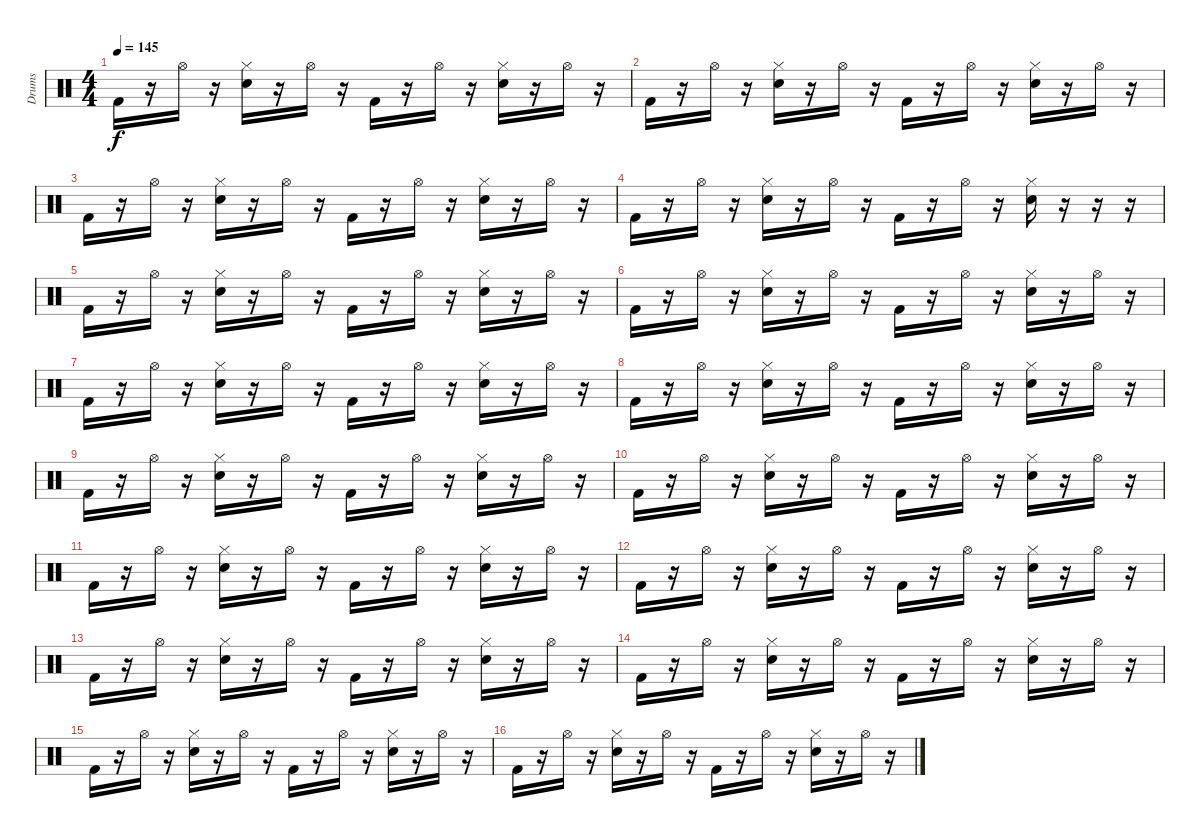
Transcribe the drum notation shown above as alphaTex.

\track ("Drums" "Drums") {instrument percussion}
\staff {score}
\articulation defaults
\ts (4 4)
\tempo 145
\clef neutral
\ks c "Kick (hit) 2".16{dy f}
r.16 "Hi-Hat (open)".16 r.16 ("Snare (hit) 2" "Hi-Hat (closed)").16 r.16 "Hi-Hat (open)".16 r.16 "Kick (hit) 2".16 r.16 "Hi-Hat (open)".16 r.16 ("Snare (hit) 2" "Hi-Hat (closed)").16 r.16 "Hi-Hat (open)".16 r.16 |
"Kick (hit) 2".16 r.16 "Hi-Hat (open)".16 r.16 ("Snare (hit) 2" "Hi-Hat (closed)").16 r.16 "Hi-Hat (open)".16 r.16 "Kick (hit) 2".16 r.16 "Hi-Hat (open)".16 r.16 ("Snare (hit) 2" "Hi-Hat (closed)").16 r.16 "Hi-Hat (open)".16 r.16 |
"Kick (hit) 2".16 r.16 "Hi-Hat (open)".16 r.16 ("Snare (hit) 2" "Hi-Hat (closed)").16 r.16 "Hi-Hat (open)".16 r.16 "Kick (hit) 2".16 r.16 "Hi-Hat (open)".16 r.16 ("Snare (hit) 2" "Hi-Hat (closed)").16 r.16 "Hi-Hat (open)".16 r.16 |
"Kick (hit) 2".16 r.16 "Hi-Hat (open)".16 r.16 ("Snare (hit) 2" "Hi-Hat (closed)").16 r.16 "Hi-Hat (open)".16 r.16 "Kick (hit) 2".16 r.16 "Hi-Hat (open)".16 r.16 ("Snare (hit) 2" "Hi-Hat (closed)").16 r.16 r.16 r.16 |
"Kick (hit) 2".16 r.16 "Hi-Hat (open)".16 r.16 ("Snare (hit) 2" "Hi-Hat (closed)").16 r.16 "Hi-Hat (open)".16 r.16 "Kick (hit) 2".16 r.16 "Hi-Hat (open)".16 r.16 ("Snare (hit) 2" "Hi-Hat (closed)").16 r.16 "Hi-Hat (open)".16 r.16 |
"Kick (hit) 2".16 r.16 "Hi-Hat (open)".16 r.16 ("Snare (hit) 2" "Hi-Hat (closed)").16 r.16 "Hi-Hat (open)".16 r.16 "Kick (hit) 2".16 r.16 "Hi-Hat (open)".16 r.16 ("Snare (hit) 2" "Hi-Hat (closed)").16 r.16 "Hi-Hat (open)".16 r.16 |
"Kick (hit) 2".16 r.16 "Hi-Hat (open)".16 r.16 ("Snare (hit) 2" "Hi-Hat (closed)").16 r.16 "Hi-Hat (open)".16 r.16 "Kick (hit) 2".16 r.16 "Hi-Hat (open)".16 r.16 ("Snare (hit) 2" "Hi-Hat (closed)").16 r.16 "Hi-Hat (open)".16 r.16 |
"Kick (hit) 2".16 r.16 "Hi-Hat (open)".16 r.16 ("Snare (hit) 2" "Hi-Hat (closed)").16 r.16 "Hi-Hat (open)".16 r.16 "Kick (hit) 2".16 r.16 "Hi-Hat (open)".16 r.16 ("Snare (hit) 2" "Hi-Hat (closed)").16 r.16 "Hi-Hat (open)".16 r.16 |
"Kick (hit) 2".16 r.16 "Hi-Hat (open)".16 r.16 ("Snare (hit) 2" "Hi-Hat (closed)").16 r.16 "Hi-Hat (open)".16 r.16 "Kick (hit) 2".16 r.16 "Hi-Hat (open)".16 r.16 ("Snare (hit) 2" "Hi-Hat (closed)").16 r.16 "Hi-Hat (open)".16 r.16 |
"Kick (hit) 2".16 r.16 "Hi-Hat (open)".16 r.16 ("Snare (hit) 2" "Hi-Hat (closed)").16 r.16 "Hi-Hat (open)".16 r.16 "Kick (hit) 2".16 r.16 "Hi-Hat (open)".16 r.16 ("Snare (hit) 2" "Hi-Hat (closed)").16 r.16 "Hi-Hat (open)".16 r.16 |
"Kick (hit) 2".16 r.16 "Hi-Hat (open)".16 r.16 ("Snare (hit) 2" "Hi-Hat (closed)").16 r.16 "Hi-Hat (open)".16 r.16 "Kick (hit) 2".16 r.16 "Hi-Hat (open)".16 r.16 ("Snare (hit) 2" "Hi-Hat (closed)").16 r.16 "Hi-Hat (open)".16 r.16 |
"Kick (hit) 2".16 r.16 "Hi-Hat (open)".16 r.16 ("Snare (hit) 2" "Hi-Hat (closed)").16 r.16 "Hi-Hat (open)".16 r.16 "Kick (hit) 2".16 r.16 "Hi-Hat (open)".16 r.16 ("Snare (hit) 2" "Hi-Hat (closed)").16 r.16 "Hi-Hat (open)".16 r.16 |
"Kick (hit) 2".16 r.16 "Hi-Hat (open)".16 r.16 ("Snare (hit) 2" "Hi-Hat (closed)").16 r.16 "Hi-Hat (open)".16 r.16 "Kick (hit) 2".16 r.16 "Hi-Hat (open)".16 r.16 ("Snare (hit) 2" "Hi-Hat (closed)").16 r.16 "Hi-Hat (open)".16 r.16 |
"Kick (hit) 2".16 r.16 "Hi-Hat (open)".16 r.16 ("Snare (hit) 2" "Hi-Hat (closed)").16 r.16 "Hi-Hat (open)".16 r.16 "Kick (hit) 2".16 r.16 "Hi-Hat (open)".16 r.16 ("Snare (hit) 2" "Hi-Hat (closed)").16 r.16 "Hi-Hat (open)".16 r.16 |
"Kick (hit) 2".16 r.16 "Hi-Hat (open)".16 r.16 ("Snare (hit) 2" "Hi-Hat (closed)").16 r.16 "Hi-Hat (open)".16 r.16 "Kick (hit) 2".16 r.16 "Hi-Hat (open)".16 r.16 ("Snare (hit) 2" "Hi-Hat (closed)").16 r.16 "Hi-Hat (open)".16 r.16 |
"Kick (hit) 2".16 r.16 "Hi-Hat (open)".16 r.16 ("Snare (hit) 2" "Hi-Hat (closed)").16 r.16 "Hi-Hat (open)".16 r.16 "Kick (hit) 2".16 r.16 "Hi-Hat (open)".16 r.16 ("Snare (hit) 2" "Hi-Hat (closed)").16 r.16 "Hi-Hat (open)".16 r.16
